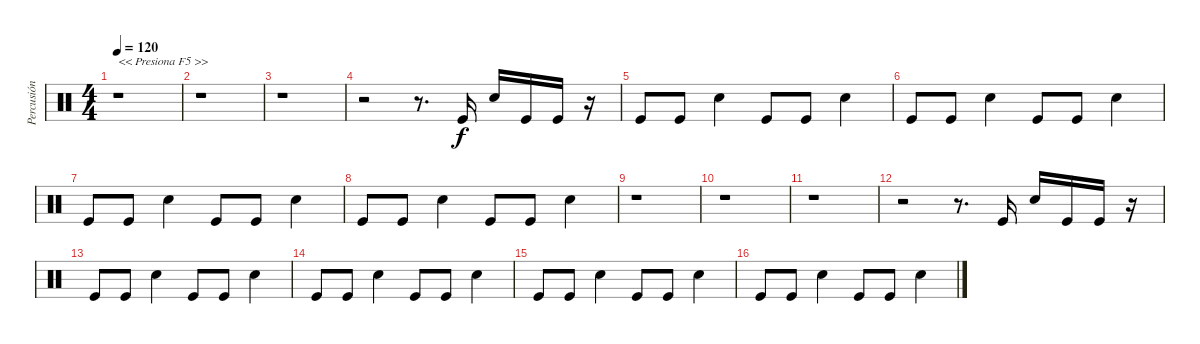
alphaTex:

\track ("Percusión" "Percusión") {instrument percussion}
\staff {score}
\articulation defaults
\ts (4 4)
\tempo 120
\clef neutral
\ks c
r.1{txt "<< Presiona F5 >>" dy f} |
r.1 |
r.1 |
r.2 r.8{d} "Kick (hit)".16 "Snare (hit) 2".16 "Kick (hit)".16 "Kick (hit)".16 r.16 |
"Kick (hit)".8 "Kick (hit)".8 "Snare (hit) 2".4 "Kick (hit)".8 "Kick (hit)".8 "Snare (hit) 2".4 |
"Kick (hit)".8 "Kick (hit)".8 "Snare (hit) 2".4 "Kick (hit)".8 "Kick (hit)".8 "Snare (hit) 2".4 |
"Kick (hit)".8 "Kick (hit)".8 "Snare (hit) 2".4 "Kick (hit)".8 "Kick (hit)".8 "Snare (hit) 2".4 |
"Kick (hit)".8 "Kick (hit)".8 "Snare (hit) 2".4 "Kick (hit)".8 "Kick (hit)".8 "Snare (hit) 2".4 |
r.1 |
r.1 |
r.1 |
r.2 r.8{d} "Kick (hit)".16 "Snare (hit) 2".16 "Kick (hit)".16 "Kick (hit)".16 r.16 |
"Kick (hit)".8 "Kick (hit)".8 "Snare (hit) 2".4 "Kick (hit)".8 "Kick (hit)".8 "Snare (hit) 2".4 |
"Kick (hit)".8 "Kick (hit)".8 "Snare (hit) 2".4 "Kick (hit)".8 "Kick (hit)".8 "Snare (hit) 2".4 |
"Kick (hit)".8 "Kick (hit)".8 "Snare (hit) 2".4 "Kick (hit)".8 "Kick (hit)".8 "Snare (hit) 2".4 |
"Kick (hit)".8 "Kick (hit)".8 "Snare (hit) 2".4 "Kick (hit)".8 "Kick (hit)".8 "Snare (hit) 2".4
